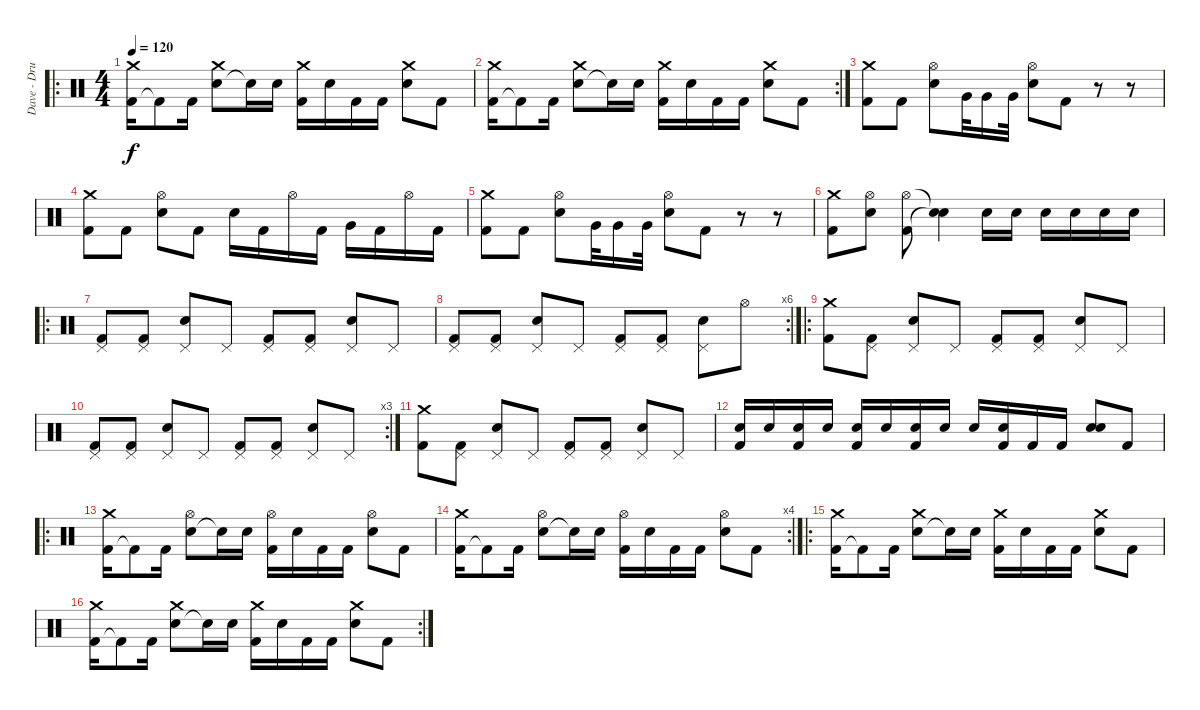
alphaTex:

\track ("Dave - Drums" "Dave - Dru") {instrument percussion}
\staff {score}
\articulation defaults
\ro
\ts (4 4)
\tempo 120
\clef neutral
\ks c
("Kick (hit) 2" "Crash medium (hit)").16{dy f} "Kick (hit) 2"{t}.8 "Kick (hit) 2".16 ("Snare (hit) 2" "Crash medium (hit)").8 "Snare (hit)"{t}.16 "Snare (hit) 2".16 ("Kick (hit) 2" "Crash medium (hit)").16 "Snare (hit) 2".16 "Kick (hit) 2".16 "Kick (hit) 2".16 ("Snare (hit) 2" "Crash medium (hit)").8 "Kick (hit) 2".8 |
\rc 2
("Kick (hit) 2" "Crash medium (hit)").16 "Kick (hit) 2"{t}.8 "Kick (hit) 2".16 ("Snare (hit) 2" "Crash medium (hit)").8 "Snare (hit)"{t}.16 "Snare (hit) 2".16 ("Kick (hit) 2" "Crash medium (hit)").16 "Snare (hit) 2".16 "Kick (hit) 2".16 "Kick (hit) 2".16 ("Snare (hit) 2" "Crash medium (hit)").8 "Kick (hit) 2".8 |
("Kick (hit) 2" "Crash medium (hit)").8 "Kick (hit) 2".8 ("Snare (hit) 2" "Hi-Hat (open)").8 "Very Low Tom (hit)".32 "Very Low Tom (hit)".16 "Very Low Tom (hit)".32 ("Snare (hit) 2" "Hi-Hat (open)").8 "Kick (hit) 2".8 r.8 r.8 |
("Kick (hit) 2" "Crash medium (hit)").8 "Kick (hit) 2".8 ("Snare (hit) 2" "Hi-Hat (open)").8 "Kick (hit) 2".8 "Snare (hit) 2".16 "Kick (hit) 2".16 "Hi-Hat (open)".16 "Kick (hit) 2".16 "Very Low Tom (hit)".16 "Kick (hit) 2".16 "Hi-Hat (open)".16 "Kick (hit) 2".16 |
("Kick (hit) 2" "Crash medium (hit)").8 "Kick (hit) 2".8 ("Snare (hit) 2" "Hi-Hat (open)").8 "Very Low Tom (hit)".32 "Very Low Tom (hit)".16 "Very Low Tom (hit)".32 ("Snare (hit) 2" "Hi-Hat (open)").8 "Kick (hit) 2".8 r.8 r.8 |
("Kick (hit) 2" "Crash medium (hit)").8 ("Snare (hit) 2" "Hi-Hat (open)").8 ("Kick (hit) 2" "Hi-Hat (open)").8 ("Snare (hit)"{t} "Snare (hit)"{t}).4 "Snare (hit) 2".16 "Snare (hit) 2".16 "Snare (hit) 2".16 "Snare (hit) 2".16 "Snare (hit) 2".16 "Snare (hit) 2".16 |
\ro
("Kick (hit) 2" "Pedal Hi-Hat (hit)").8 ("Kick (hit) 2" "Pedal Hi-Hat (hit)").8 ("Snare (hit) 2" "Pedal Hi-Hat (hit)").8 "Pedal Hi-Hat (hit)".8 ("Kick (hit) 2" "Pedal Hi-Hat (hit)").8 ("Kick (hit) 2" "Pedal Hi-Hat (hit)").8 ("Snare (hit) 2" "Pedal Hi-Hat (hit)").8 "Pedal Hi-Hat (hit)".8 |
\rc 6
("Kick (hit) 2" "Pedal Hi-Hat (hit)").8 ("Kick (hit) 2" "Pedal Hi-Hat (hit)").8 ("Snare (hit) 2" "Pedal Hi-Hat (hit)").8 "Pedal Hi-Hat (hit)".8 ("Kick (hit) 2" "Pedal Hi-Hat (hit)").8 ("Kick (hit) 2" "Pedal Hi-Hat (hit)").8 ("Snare (hit) 2" "Pedal Hi-Hat (hit)").8 "Hi-Hat (open)".8 |
\ro
("Kick (hit) 2" "Crash medium (hit)").8 ("Kick (hit) 2" "Pedal Hi-Hat (hit)").8 ("Snare (hit) 2" "Pedal Hi-Hat (hit)").8 "Pedal Hi-Hat (hit)".8 ("Kick (hit) 2" "Pedal Hi-Hat (hit)").8 ("Kick (hit) 2" "Pedal Hi-Hat (hit)").8 ("Snare (hit) 2" "Pedal Hi-Hat (hit)").8 "Pedal Hi-Hat (hit)".8 |
\rc 3
("Kick (hit) 2" "Pedal Hi-Hat (hit)").8 ("Kick (hit) 2" "Pedal Hi-Hat (hit)").8 ("Snare (hit) 2" "Pedal Hi-Hat (hit)").8 "Pedal Hi-Hat (hit)".8 ("Kick (hit) 2" "Pedal Hi-Hat (hit)").8 ("Kick (hit) 2" "Pedal Hi-Hat (hit)").8 ("Snare (hit) 2" "Pedal Hi-Hat (hit)").8 "Pedal Hi-Hat (hit)".8 |
("Kick (hit) 2" "Crash medium (hit)").8 ("Kick (hit) 2" "Pedal Hi-Hat (hit)").8 ("Snare (hit) 2" "Pedal Hi-Hat (hit)").8 "Pedal Hi-Hat (hit)".8 ("Kick (hit) 2" "Pedal Hi-Hat (hit)").8 ("Kick (hit) 2" "Pedal Hi-Hat (hit)").8 ("Snare (hit) 2" "Pedal Hi-Hat (hit)").8 "Pedal Hi-Hat (hit)".8 |
("Snare (hit) 2" "Kick (hit) 2").16 "Snare (hit) 2".16 ("Snare (hit) 2" "Kick (hit) 2").16 "Snare (hit) 2".16 ("Snare (hit) 2" "Kick (hit) 2").16 "Snare (hit) 2".16 ("Snare (hit) 2" "Kick (hit) 2").16 "Snare (hit) 2".16 "Snare (hit) 2".16 ("Snare (hit) 2" "Kick (hit) 2").16 "Kick (hit) 2".16 "Kick (hit) 2".16 ("Snare (hit) 2" "Electric Snare (hit)").8 "Kick (hit) 2".8 |
\ro
("Kick (hit) 2" "Crash medium (hit)").16 "Kick (hit) 2"{t}.8 "Kick (hit) 2".16 ("Snare (hit) 2" "Hi-Hat (open)").8 "Snare (hit)"{t}.16 "Snare (hit) 2".16 ("Kick (hit) 2" "Hi-Hat (open)").16 "Snare (hit) 2".16 "Kick (hit) 2".16 "Kick (hit) 2".16 ("Snare (hit) 2" "Hi-Hat (open)").8 "Kick (hit) 2".8 |
\rc 4
("Kick (hit) 2" "Crash medium (hit)").16 "Kick (hit) 2"{t}.8 "Kick (hit) 2".16 ("Snare (hit) 2" "Hi-Hat (open)").8 "Snare (hit)"{t}.16 "Snare (hit) 2".16 ("Kick (hit) 2" "Hi-Hat (open)").16 "Snare (hit) 2".16 "Kick (hit) 2".16 "Kick (hit) 2".16 ("Snare (hit) 2" "Hi-Hat (open)").8 "Kick (hit) 2".8 |
\ro
("Kick (hit) 2" "Crash medium (hit)").16 "Kick (hit) 2"{t}.8 "Kick (hit) 2".16 ("Snare (hit) 2" "Crash medium (hit)").8 "Snare (hit)"{t}.16 "Snare (hit) 2".16 ("Kick (hit) 2" "Crash medium (hit)").16 "Snare (hit) 2".16 "Kick (hit) 2".16 "Kick (hit) 2".16 ("Snare (hit) 2" "Crash medium (hit)").8 "Kick (hit) 2".8 |
\rc 2
("Kick (hit) 2" "Crash medium (hit)").16 "Kick (hit) 2"{t}.8 "Kick (hit) 2".16 ("Snare (hit) 2" "Crash medium (hit)").8 "Snare (hit)"{t}.16 "Snare (hit) 2".16 ("Kick (hit) 2" "Crash medium (hit)").16 "Snare (hit) 2".16 "Kick (hit) 2".16 "Kick (hit) 2".16 ("Snare (hit) 2" "Crash medium (hit)").8 "Kick (hit) 2".8
